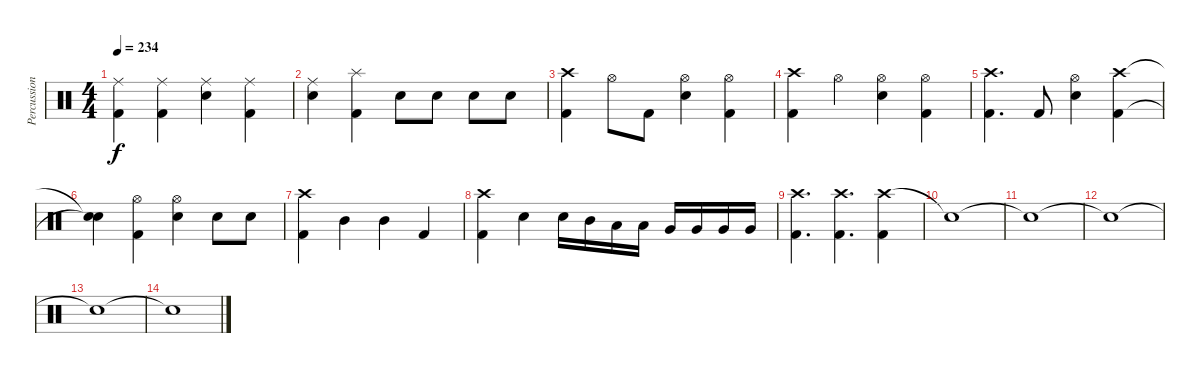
\track ("Percussions" "Percussion") {instrument percussion}
\staff {score}
\articulation defaults
\ts (4 4)
\tempo 234
\clef neutral
\ks c
("Ride (middle)" "Kick (hit) 2").4{dy f} ("Ride (middle)" "Kick (hit) 2").4 ("Ride (middle)" "Snare (hit) 2").4 ("Ride (middle)" "Kick (hit) 2").4 |
("Ride (middle)" "Snare (hit) 2").4 ("Splash (hit)" "Kick (hit) 2").4 "Snare (hit) 2".8 "Snare (hit) 2".8 "Snare (hit) 2".8 "Snare (hit) 2".8 |
("Crash high (hit)" "Kick (hit) 2").4 "Hi-Hat (open)".8 "Kick (hit) 2".8 ("Hi-Hat (open)" "Snare (hit) 2").4 ("Hi-Hat (open)" "Kick (hit) 2").4 |
("Crash high (hit)" "Kick (hit) 2").4 "Hi-Hat (open)".4 ("Hi-Hat (open)" "Snare (hit) 2").4 ("Hi-Hat (open)" "Kick (hit) 2").4 |
("Crash high (hit)" "Kick (hit) 2").4{d} "Kick (hit) 2".8 ("Hi-Hat (open)" "Snare (hit) 2").4 ("Crash high (hit)" "Kick (hit) 2").4 |
("Snare (hit)"{t} "Snare (hit)"{t}).4 ("Hi-Hat (open)" "Kick (hit) 2").4 ("Hi-Hat (open)" "Snare (hit) 2").4 "Snare (hit) 2".8 "Snare (hit) 2".8 |
("Crash high (hit)" "Kick (hit) 2").4 "Mid Tom (hit)".4 "Mid Tom (hit)".4 "Kick (hit) 2".4 |
("Crash high (hit)" "Kick (hit) 2").4 "Snare (hit) 2".4 "Snare (hit) 2".16 "Mid Tom (hit)".16 "Low Tom (hit)".16 "Low Tom (hit)".16 "Very Low Tom (hit)".16 "Very Low Tom (hit)".16 "Very Low Tom (hit)".16 "Very Low Tom (hit)".16 |
("Crash high (hit)" "Kick (hit) 2").4{d} ("Crash high (hit)" "Kick (hit) 2").4{d} ("Crash high (hit)" "Kick (hit) 2").4 |
"Snare (hit)"{t}.1 |
"Snare (hit)"{t}.1 |
"Snare (hit)"{t}.1 |
"Snare (hit)"{t}.1 |
"Snare (hit)"{t}.1
